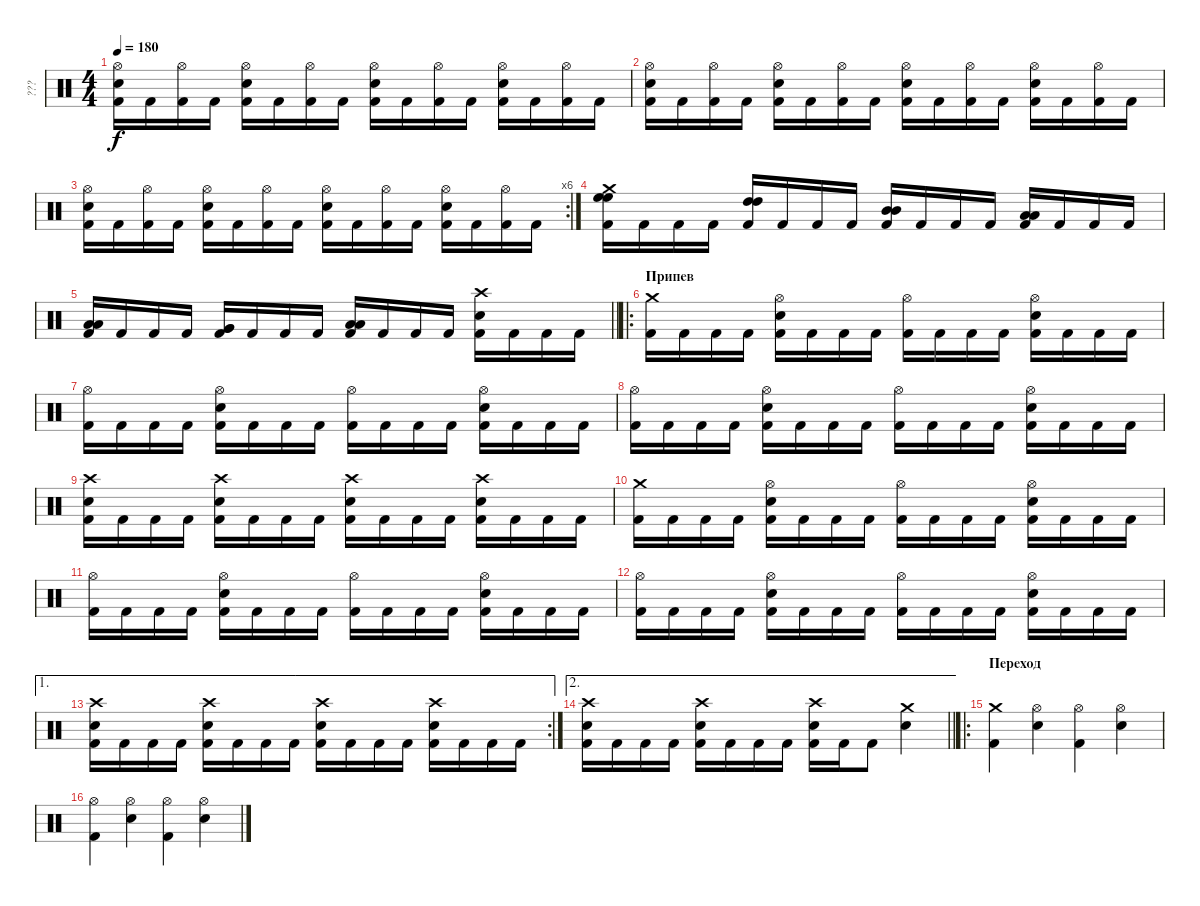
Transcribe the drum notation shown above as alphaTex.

\track ("???" "???") {instrument percussion}
\staff {score}
\articulation defaults
\ts (4 4)
\tempo 180
\clef neutral
\ks c
("Hi-Hat (open)" "Kick (hit) 2" "Snare (hit) 2").16{dy f} "Kick (hit) 2".16 ("Hi-Hat (open)" "Kick (hit) 2").16 "Kick (hit) 2".16 ("Hi-Hat (open)" "Kick (hit) 2" "Snare (hit) 2").16 "Kick (hit) 2".16 ("Hi-Hat (open)" "Kick (hit) 2").16 "Kick (hit) 2".16 ("Hi-Hat (open)" "Kick (hit) 2" "Snare (hit) 2").16 "Kick (hit) 2".16 ("Hi-Hat (open)" "Kick (hit) 2").16 "Kick (hit) 2".16 ("Hi-Hat (open)" "Kick (hit) 2" "Snare (hit) 2").16 "Kick (hit) 2".16 ("Hi-Hat (open)" "Kick (hit) 2").16 "Kick (hit) 2".16 |
("Hi-Hat (open)" "Kick (hit) 2" "Snare (hit) 2").16 "Kick (hit) 2".16 ("Hi-Hat (open)" "Kick (hit) 2").16 "Kick (hit) 2".16 ("Hi-Hat (open)" "Kick (hit) 2" "Snare (hit) 2").16 "Kick (hit) 2".16 ("Hi-Hat (open)" "Kick (hit) 2").16 "Kick (hit) 2".16 ("Hi-Hat (open)" "Kick (hit) 2" "Snare (hit) 2").16 "Kick (hit) 2".16 ("Hi-Hat (open)" "Kick (hit) 2").16 "Kick (hit) 2".16 ("Hi-Hat (open)" "Kick (hit) 2" "Snare (hit) 2").16 "Kick (hit) 2".16 ("Hi-Hat (open)" "Kick (hit) 2").16 "Kick (hit) 2".16 |
\rc 6
("Hi-Hat (open)" "Kick (hit) 2" "Snare (hit) 2").16 "Kick (hit) 2".16 ("Hi-Hat (open)" "Kick (hit) 2").16 "Kick (hit) 2".16 ("Hi-Hat (open)" "Kick (hit) 2" "Snare (hit) 2").16 "Kick (hit) 2".16 ("Hi-Hat (open)" "Kick (hit) 2").16 "Kick (hit) 2".16 ("Hi-Hat (open)" "Kick (hit) 2" "Snare (hit) 2").16 "Kick (hit) 2".16 ("Hi-Hat (open)" "Kick (hit) 2").16 "Kick (hit) 2".16 ("Hi-Hat (open)" "Kick (hit) 2" "Snare (hit) 2").16 "Kick (hit) 2".16 ("Hi-Hat (open)" "Kick (hit) 2").16 "Kick (hit) 2".16 |
("Crash medium (hit)" "Kick (hit) 2" "High Floor Tom (hit)" "High Floor Tom (hit)").16 "Kick (hit) 2".16 "Kick (hit) 2".16 "Kick (hit) 2".16 ("Kick (hit) 2" "High Tom (hit)" "High Tom (hit)").16 "Kick (hit) 2".16 "Kick (hit) 2".16 "Kick (hit) 2".16 ("Kick (hit) 2" "Mid Tom (hit)" "Mid Tom (hit)").16 "Kick (hit) 2".16 "Kick (hit) 2".16 "Kick (hit) 2".16 ("Kick (hit) 2" "Low Tom (hit)" "Low Tom (hit)").16 "Kick (hit) 2".16 "Kick (hit) 2".16 "Kick (hit) 2".16 |
\barLineRight lightlight
("Kick (hit) 2" "Low Tom (hit)" "Low Tom (hit)").16 "Kick (hit) 2".16 "Kick (hit) 2".16 "Kick (hit) 2".16 ("Kick (hit) 2" "Very Low Tom (hit)" "Very Low Tom (hit)").16 "Kick (hit) 2".16 "Kick (hit) 2".16 "Kick (hit) 2".16 ("Kick (hit) 2" "Low Floor Tom (hit)" "Low Floor Tom (hit)").16 "Kick (hit) 2".16 "Kick (hit) 2".16 "Kick (hit) 2".16 ("Crash high (hit)" "Kick (hit) 2" "Snare (hit) 2").16 "Kick (hit) 2".16 "Kick (hit) 2".16 "Kick (hit) 2".16 |
\ro
\section ("" "Припев")
("Crash medium (hit)" "Kick (hit) 2").16 "Kick (hit) 2".16 "Kick (hit) 2".16 "Kick (hit) 2".16 ("Hi-Hat (open)" "Kick (hit) 2" "Snare (hit) 2").16 "Kick (hit) 2".16 "Kick (hit) 2".16 "Kick (hit) 2".16 ("Hi-Hat (open)" "Kick (hit) 2").16 "Kick (hit) 2".16 "Kick (hit) 2".16 "Kick (hit) 2".16 ("Hi-Hat (open)" "Kick (hit) 2" "Snare (hit) 2").16 "Kick (hit) 2".16 "Kick (hit) 2".16 "Kick (hit) 2".16 |
("Hi-Hat (open)" "Kick (hit) 2").16 "Kick (hit) 2".16 "Kick (hit) 2".16 "Kick (hit) 2".16 ("Hi-Hat (open)" "Kick (hit) 2" "Snare (hit) 2").16 "Kick (hit) 2".16 "Kick (hit) 2".16 "Kick (hit) 2".16 ("Hi-Hat (open)" "Kick (hit) 2").16 "Kick (hit) 2".16 "Kick (hit) 2".16 "Kick (hit) 2".16 ("Hi-Hat (open)" "Kick (hit) 2" "Snare (hit) 2").16 "Kick (hit) 2".16 "Kick (hit) 2".16 "Kick (hit) 2".16 |
("Hi-Hat (open)" "Kick (hit) 2").16 "Kick (hit) 2".16 "Kick (hit) 2".16 "Kick (hit) 2".16 ("Hi-Hat (open)" "Kick (hit) 2" "Snare (hit) 2").16 "Kick (hit) 2".16 "Kick (hit) 2".16 "Kick (hit) 2".16 ("Hi-Hat (open)" "Kick (hit) 2").16 "Kick (hit) 2".16 "Kick (hit) 2".16 "Kick (hit) 2".16 ("Hi-Hat (open)" "Kick (hit) 2" "Snare (hit) 2").16 "Kick (hit) 2".16 "Kick (hit) 2".16 "Kick (hit) 2".16 |
("Crash high (hit)" "Kick (hit) 2" "Snare (hit) 2").16 "Kick (hit) 2".16 "Kick (hit) 2".16 "Kick (hit) 2".16 ("Crash high (hit)" "Kick (hit) 2" "Snare (hit) 2").16 "Kick (hit) 2".16 "Kick (hit) 2".16 "Kick (hit) 2".16 ("Crash high (hit)" "Kick (hit) 2" "Snare (hit) 2").16 "Kick (hit) 2".16 "Kick (hit) 2".16 "Kick (hit) 2".16 ("Crash high (hit)" "Kick (hit) 2" "Snare (hit) 2").16 "Kick (hit) 2".16 "Kick (hit) 2".16 "Kick (hit) 2".16 |
("Crash medium (hit)" "Kick (hit) 2").16 "Kick (hit) 2".16 "Kick (hit) 2".16 "Kick (hit) 2".16 ("Hi-Hat (open)" "Kick (hit) 2" "Snare (hit) 2").16 "Kick (hit) 2".16 "Kick (hit) 2".16 "Kick (hit) 2".16 ("Hi-Hat (open)" "Kick (hit) 2").16 "Kick (hit) 2".16 "Kick (hit) 2".16 "Kick (hit) 2".16 ("Hi-Hat (open)" "Kick (hit) 2" "Snare (hit) 2").16 "Kick (hit) 2".16 "Kick (hit) 2".16 "Kick (hit) 2".16 |
("Hi-Hat (open)" "Kick (hit) 2").16 "Kick (hit) 2".16 "Kick (hit) 2".16 "Kick (hit) 2".16 ("Hi-Hat (open)" "Kick (hit) 2" "Snare (hit) 2").16 "Kick (hit) 2".16 "Kick (hit) 2".16 "Kick (hit) 2".16 ("Hi-Hat (open)" "Kick (hit) 2").16 "Kick (hit) 2".16 "Kick (hit) 2".16 "Kick (hit) 2".16 ("Hi-Hat (open)" "Kick (hit) 2" "Snare (hit) 2").16 "Kick (hit) 2".16 "Kick (hit) 2".16 "Kick (hit) 2".16 |
("Hi-Hat (open)" "Kick (hit) 2").16 "Kick (hit) 2".16 "Kick (hit) 2".16 "Kick (hit) 2".16 ("Hi-Hat (open)" "Kick (hit) 2" "Snare (hit) 2").16 "Kick (hit) 2".16 "Kick (hit) 2".16 "Kick (hit) 2".16 ("Hi-Hat (open)" "Kick (hit) 2").16 "Kick (hit) 2".16 "Kick (hit) 2".16 "Kick (hit) 2".16 ("Hi-Hat (open)" "Kick (hit) 2" "Snare (hit) 2").16 "Kick (hit) 2".16 "Kick (hit) 2".16 "Kick (hit) 2".16 |
\ae 1
\rc 2
("Crash high (hit)" "Kick (hit) 2" "Snare (hit) 2").16 "Kick (hit) 2".16 "Kick (hit) 2".16 "Kick (hit) 2".16 ("Crash high (hit)" "Kick (hit) 2" "Snare (hit) 2").16 "Kick (hit) 2".16 "Kick (hit) 2".16 "Kick (hit) 2".16 ("Crash high (hit)" "Kick (hit) 2" "Snare (hit) 2").16 "Kick (hit) 2".16 "Kick (hit) 2".16 "Kick (hit) 2".16 ("Crash high (hit)" "Kick (hit) 2" "Snare (hit) 2").16 "Kick (hit) 2".16 "Kick (hit) 2".16 "Kick (hit) 2".16 |
\ae 2
\barLineRight lightlight
("Crash high (hit)" "Kick (hit) 2" "Snare (hit) 2").16 "Kick (hit) 2".16 "Kick (hit) 2".16 "Kick (hit) 2".16 ("Crash high (hit)" "Kick (hit) 2" "Snare (hit) 2").16 "Kick (hit) 2".16 "Kick (hit) 2".16 "Kick (hit) 2".16 ("Crash high (hit)" "Kick (hit) 2" "Snare (hit) 2").16 "Kick (hit) 2".16 "Kick (hit) 2".8 ("Crash medium (hit)" "Snare (hit) 2").4 |
\ro
\section ("" "Переход")
("Crash medium (hit)" "Kick (hit) 2").4 ("Hi-Hat (open)" "Snare (hit) 2").4 ("Hi-Hat (open)" "Kick (hit) 2").4 ("Hi-Hat (open)" "Snare (hit) 2").4 |
("Hi-Hat (open)" "Kick (hit) 2").4 ("Hi-Hat (open)" "Snare (hit) 2").4 ("Hi-Hat (open)" "Kick (hit) 2").4 ("Hi-Hat (open)" "Snare (hit) 2").4
